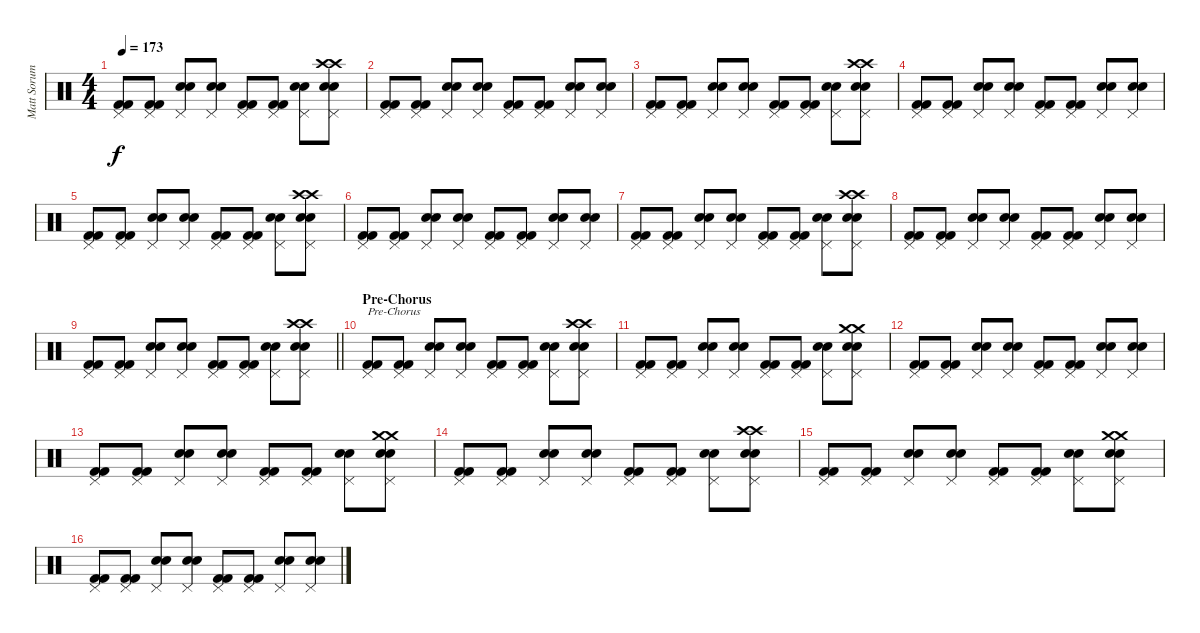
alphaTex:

\track ("Matt Sorum" "Matt Sorum") {instrument percussion}
\staff {score}
\articulation defaults
\ts (4 4)
\tempo 173
\clef neutral
\ks c
("Pedal Hi-Hat (hit)" "Kick (hit) 2" "Kick (hit) 2").8{dy f} ("Pedal Hi-Hat (hit)" "Kick (hit) 2" "Kick (hit) 2").8 ("Pedal Hi-Hat (hit)" "Snare (hit) 2" "Snare (hit) 2").8 ("Pedal Hi-Hat (hit)" "Snare (hit) 2" "Snare (hit) 2").8 ("Pedal Hi-Hat (hit)" "Kick (hit) 2" "Kick (hit) 2").8 ("Pedal Hi-Hat (hit)" "Kick (hit) 2" "Kick (hit) 2").8 ("Pedal Hi-Hat (hit)" "Snare (hit) 2" "Snare (hit) 2").8 ("Crash high (hit)" "Crash high (hit)" "Pedal Hi-Hat (hit)" "Snare (hit) 2" "Snare (hit) 2").8 |
("Pedal Hi-Hat (hit)" "Kick (hit) 2" "Kick (hit) 2").8 ("Pedal Hi-Hat (hit)" "Kick (hit) 2" "Kick (hit) 2").8 ("Pedal Hi-Hat (hit)" "Snare (hit) 2" "Snare (hit) 2").8 ("Pedal Hi-Hat (hit)" "Snare (hit) 2" "Snare (hit) 2").8 ("Pedal Hi-Hat (hit)" "Kick (hit) 2" "Kick (hit) 2").8 ("Pedal Hi-Hat (hit)" "Kick (hit) 2" "Kick (hit) 2").8 ("Pedal Hi-Hat (hit)" "Snare (hit) 2" "Snare (hit) 2").8 ("Pedal Hi-Hat (hit)" "Snare (hit) 2" "Snare (hit) 2").8 |
("Pedal Hi-Hat (hit)" "Kick (hit) 2" "Kick (hit) 2").8 ("Pedal Hi-Hat (hit)" "Kick (hit) 2" "Kick (hit) 2").8 ("Pedal Hi-Hat (hit)" "Snare (hit) 2" "Snare (hit) 2").8 ("Pedal Hi-Hat (hit)" "Snare (hit) 2" "Snare (hit) 2").8 ("Pedal Hi-Hat (hit)" "Kick (hit) 2" "Kick (hit) 2").8 ("Pedal Hi-Hat (hit)" "Kick (hit) 2" "Kick (hit) 2").8 ("Pedal Hi-Hat (hit)" "Snare (hit) 2" "Snare (hit) 2").8 ("Crash high (hit)" "Crash high (hit)" "Pedal Hi-Hat (hit)" "Snare (hit) 2" "Snare (hit) 2").8 |
("Pedal Hi-Hat (hit)" "Kick (hit) 2" "Kick (hit) 2").8 ("Pedal Hi-Hat (hit)" "Kick (hit) 2" "Kick (hit) 2").8 ("Pedal Hi-Hat (hit)" "Snare (hit) 2" "Snare (hit) 2").8 ("Pedal Hi-Hat (hit)" "Snare (hit) 2" "Snare (hit) 2").8 ("Pedal Hi-Hat (hit)" "Kick (hit) 2" "Kick (hit) 2").8 ("Pedal Hi-Hat (hit)" "Kick (hit) 2" "Kick (hit) 2").8 ("Pedal Hi-Hat (hit)" "Snare (hit) 2" "Snare (hit) 2").8 ("Pedal Hi-Hat (hit)" "Snare (hit) 2" "Snare (hit) 2").8 |
("Pedal Hi-Hat (hit)" "Kick (hit) 2" "Kick (hit) 2").8 ("Pedal Hi-Hat (hit)" "Kick (hit) 2" "Kick (hit) 2").8 ("Pedal Hi-Hat (hit)" "Snare (hit) 2" "Snare (hit) 2").8 ("Pedal Hi-Hat (hit)" "Snare (hit) 2" "Snare (hit) 2").8 ("Pedal Hi-Hat (hit)" "Kick (hit) 2" "Kick (hit) 2").8 ("Pedal Hi-Hat (hit)" "Kick (hit) 2" "Kick (hit) 2").8 ("Pedal Hi-Hat (hit)" "Snare (hit) 2" "Snare (hit) 2").8 ("Crash high (hit)" "Crash high (hit)" "Pedal Hi-Hat (hit)" "Snare (hit) 2" "Snare (hit) 2").8 |
("Pedal Hi-Hat (hit)" "Kick (hit) 2" "Kick (hit) 2").8 ("Pedal Hi-Hat (hit)" "Kick (hit) 2" "Kick (hit) 2").8 ("Pedal Hi-Hat (hit)" "Snare (hit) 2" "Snare (hit) 2").8 ("Pedal Hi-Hat (hit)" "Snare (hit) 2" "Snare (hit) 2").8 ("Pedal Hi-Hat (hit)" "Kick (hit) 2" "Kick (hit) 2").8 ("Pedal Hi-Hat (hit)" "Kick (hit) 2" "Kick (hit) 2").8 ("Pedal Hi-Hat (hit)" "Snare (hit) 2" "Snare (hit) 2").8 ("Pedal Hi-Hat (hit)" "Snare (hit) 2" "Snare (hit) 2").8 |
("Pedal Hi-Hat (hit)" "Kick (hit) 2" "Kick (hit) 2").8 ("Pedal Hi-Hat (hit)" "Kick (hit) 2" "Kick (hit) 2").8 ("Pedal Hi-Hat (hit)" "Snare (hit) 2" "Snare (hit) 2").8 ("Pedal Hi-Hat (hit)" "Snare (hit) 2" "Snare (hit) 2").8 ("Pedal Hi-Hat (hit)" "Kick (hit) 2" "Kick (hit) 2").8 ("Pedal Hi-Hat (hit)" "Kick (hit) 2" "Kick (hit) 2").8 ("Pedal Hi-Hat (hit)" "Snare (hit) 2" "Snare (hit) 2").8 ("Crash high (hit)" "Crash high (hit)" "Pedal Hi-Hat (hit)" "Snare (hit) 2" "Snare (hit) 2").8 |
("Pedal Hi-Hat (hit)" "Kick (hit) 2" "Kick (hit) 2").8 ("Pedal Hi-Hat (hit)" "Kick (hit) 2" "Kick (hit) 2").8 ("Pedal Hi-Hat (hit)" "Snare (hit) 2" "Snare (hit) 2").8 ("Pedal Hi-Hat (hit)" "Snare (hit) 2" "Snare (hit) 2").8 ("Pedal Hi-Hat (hit)" "Kick (hit) 2" "Kick (hit) 2").8 ("Pedal Hi-Hat (hit)" "Kick (hit) 2" "Kick (hit) 2").8 ("Pedal Hi-Hat (hit)" "Snare (hit) 2" "Snare (hit) 2").8 ("Pedal Hi-Hat (hit)" "Snare (hit) 2" "Snare (hit) 2").8 |
\barLineRight lightlight
("Pedal Hi-Hat (hit)" "Kick (hit) 2" "Kick (hit) 2").8 ("Pedal Hi-Hat (hit)" "Kick (hit) 2" "Kick (hit) 2").8 ("Pedal Hi-Hat (hit)" "Snare (hit) 2" "Snare (hit) 2").8 ("Pedal Hi-Hat (hit)" "Snare (hit) 2" "Snare (hit) 2").8 ("Pedal Hi-Hat (hit)" "Kick (hit) 2" "Kick (hit) 2").8 ("Pedal Hi-Hat (hit)" "Kick (hit) 2" "Kick (hit) 2").8 ("Pedal Hi-Hat (hit)" "Snare (hit) 2" "Snare (hit) 2").8 ("Crash high (hit)" "Crash high (hit)" "Pedal Hi-Hat (hit)" "Snare (hit) 2" "Snare (hit) 2").8 |
\section ("" "Pre-Chorus")
("Pedal Hi-Hat (hit)" "Kick (hit) 2" "Kick (hit) 2").8{txt "Pre-Chorus"} ("Pedal Hi-Hat (hit)" "Kick (hit) 2" "Kick (hit) 2").8 ("Pedal Hi-Hat (hit)" "Snare (hit) 2" "Snare (hit) 2").8 ("Pedal Hi-Hat (hit)" "Snare (hit) 2" "Snare (hit) 2").8 ("Pedal Hi-Hat (hit)" "Kick (hit) 2" "Kick (hit) 2").8 ("Pedal Hi-Hat (hit)" "Kick (hit) 2" "Kick (hit) 2").8 ("Pedal Hi-Hat (hit)" "Snare (hit) 2" "Snare (hit) 2").8 ("Crash high (hit)" "Crash high (hit)" "Pedal Hi-Hat (hit)" "Snare (hit) 2" "Snare (hit) 2").8 |
("Pedal Hi-Hat (hit)" "Kick (hit) 2" "Kick (hit) 2").8 ("Pedal Hi-Hat (hit)" "Kick (hit) 2" "Kick (hit) 2").8 ("Pedal Hi-Hat (hit)" "Snare (hit) 2" "Snare (hit) 2").8 ("Pedal Hi-Hat (hit)" "Snare (hit) 2" "Snare (hit) 2").8 ("Pedal Hi-Hat (hit)" "Kick (hit) 2" "Kick (hit) 2").8 ("Pedal Hi-Hat (hit)" "Kick (hit) 2" "Kick (hit) 2").8 ("Pedal Hi-Hat (hit)" "Snare (hit) 2" "Snare (hit) 2").8 ("Crash medium (hit)" "Crash medium (hit)" "Pedal Hi-Hat (hit)" "Snare (hit) 2" "Snare (hit) 2").8 |
("Pedal Hi-Hat (hit)" "Kick (hit) 2" "Kick (hit) 2").8 ("Pedal Hi-Hat (hit)" "Kick (hit) 2" "Kick (hit) 2").8 ("Pedal Hi-Hat (hit)" "Snare (hit) 2" "Snare (hit) 2").8 ("Pedal Hi-Hat (hit)" "Snare (hit) 2" "Snare (hit) 2").8 ("Pedal Hi-Hat (hit)" "Kick (hit) 2" "Kick (hit) 2").8 ("Pedal Hi-Hat (hit)" "Kick (hit) 2" "Kick (hit) 2").8 ("Pedal Hi-Hat (hit)" "Snare (hit) 2" "Snare (hit) 2").8 ("Pedal Hi-Hat (hit)" "Snare (hit) 2" "Snare (hit) 2").8 |
("Pedal Hi-Hat (hit)" "Kick (hit) 2" "Kick (hit) 2").8 ("Pedal Hi-Hat (hit)" "Kick (hit) 2" "Kick (hit) 2").8 ("Pedal Hi-Hat (hit)" "Snare (hit) 2" "Snare (hit) 2").8 ("Pedal Hi-Hat (hit)" "Snare (hit) 2" "Snare (hit) 2").8 ("Pedal Hi-Hat (hit)" "Kick (hit) 2" "Kick (hit) 2").8 ("Pedal Hi-Hat (hit)" "Kick (hit) 2" "Kick (hit) 2").8 ("Pedal Hi-Hat (hit)" "Snare (hit) 2" "Snare (hit) 2").8 ("Crash medium (hit)" "Crash medium (hit)" "Pedal Hi-Hat (hit)" "Snare (hit) 2" "Snare (hit) 2").8 |
("Pedal Hi-Hat (hit)" "Kick (hit) 2" "Kick (hit) 2").8 ("Pedal Hi-Hat (hit)" "Kick (hit) 2" "Kick (hit) 2").8 ("Pedal Hi-Hat (hit)" "Snare (hit) 2" "Snare (hit) 2").8 ("Pedal Hi-Hat (hit)" "Snare (hit) 2" "Snare (hit) 2").8 ("Pedal Hi-Hat (hit)" "Kick (hit) 2" "Kick (hit) 2").8 ("Pedal Hi-Hat (hit)" "Kick (hit) 2" "Kick (hit) 2").8 ("Pedal Hi-Hat (hit)" "Snare (hit) 2" "Snare (hit) 2").8 ("Crash high (hit)" "Crash high (hit)" "Pedal Hi-Hat (hit)" "Snare (hit) 2" "Snare (hit) 2").8 |
("Pedal Hi-Hat (hit)" "Kick (hit) 2" "Kick (hit) 2").8 ("Pedal Hi-Hat (hit)" "Kick (hit) 2" "Kick (hit) 2").8 ("Pedal Hi-Hat (hit)" "Snare (hit) 2" "Snare (hit) 2").8 ("Pedal Hi-Hat (hit)" "Snare (hit) 2" "Snare (hit) 2").8 ("Pedal Hi-Hat (hit)" "Kick (hit) 2" "Kick (hit) 2").8 ("Pedal Hi-Hat (hit)" "Kick (hit) 2" "Kick (hit) 2").8 ("Pedal Hi-Hat (hit)" "Snare (hit) 2" "Snare (hit) 2").8 ("Crash medium (hit)" "Crash medium (hit)" "Pedal Hi-Hat (hit)" "Snare (hit) 2" "Snare (hit) 2").8 |
("Pedal Hi-Hat (hit)" "Kick (hit) 2" "Kick (hit) 2").8 ("Pedal Hi-Hat (hit)" "Kick (hit) 2" "Kick (hit) 2").8 ("Pedal Hi-Hat (hit)" "Snare (hit) 2" "Snare (hit) 2").8 ("Pedal Hi-Hat (hit)" "Snare (hit) 2" "Snare (hit) 2").8 ("Pedal Hi-Hat (hit)" "Kick (hit) 2" "Kick (hit) 2").8 ("Pedal Hi-Hat (hit)" "Kick (hit) 2" "Kick (hit) 2").8 ("Pedal Hi-Hat (hit)" "Snare (hit) 2" "Snare (hit) 2").8 ("Pedal Hi-Hat (hit)" "Snare (hit) 2" "Snare (hit) 2").8
